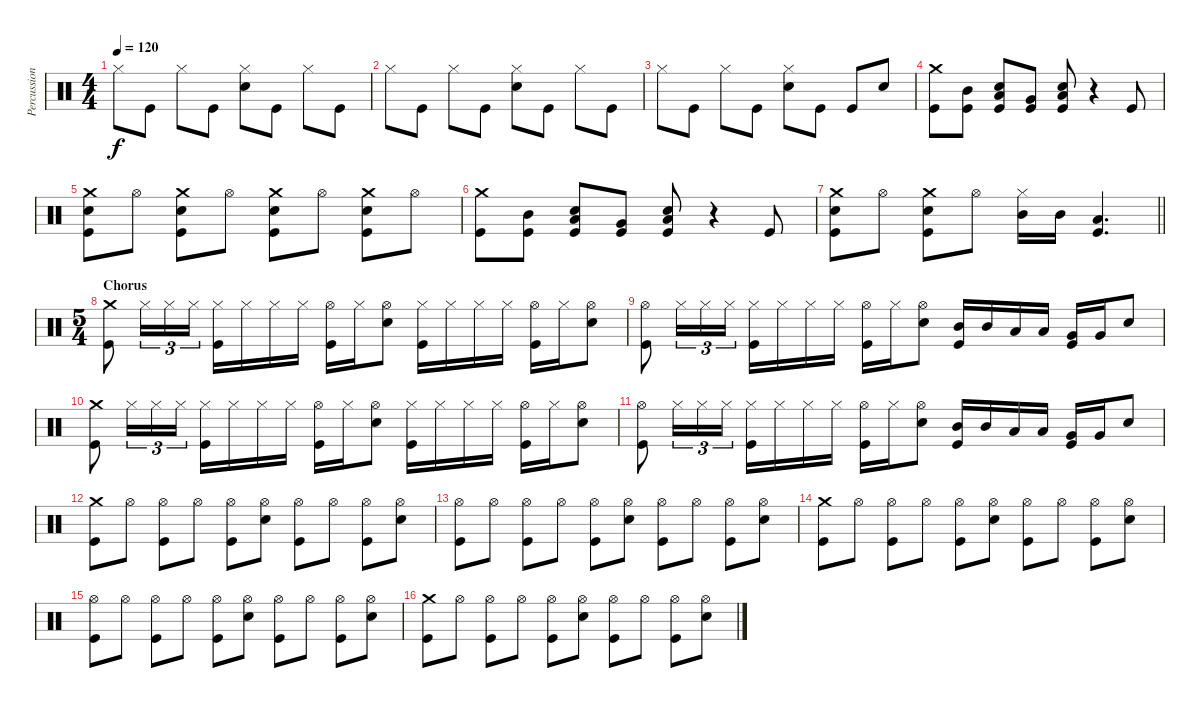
\track ("Percussion" "Percussion") {instrument percussion}
\staff {score}
\articulation defaults
\ts (4 4)
\tempo 120
\clef neutral
\ks c "Hi-Hat (closed)".8{dy f} "Kick (hit)".8 "Hi-Hat (closed)".8 "Kick (hit)".8
("Hi-Hat (closed)" "Snare (hit) 2").8 "Kick (hit)".8 "Hi-Hat (closed)".8 "Kick (hit)".8 |
"Hi-Hat (closed)".8 "Kick (hit)".8 "Hi-Hat (closed)".8 "Kick (hit)".8 ("Hi-Hat (closed)" "Snare (hit) 2").8 "Kick (hit)".8 "Hi-Hat (closed)".8 "Kick (hit)".8 |
"Hi-Hat (closed)".8 "Kick (hit)".8 "Hi-Hat (closed)".8 "Kick (hit)".8 ("Hi-Hat (closed)" "Snare (hit) 2").8 "Kick (hit)".8 "Kick (hit)".8 "Snare (hit) 2".8 |
("Crash medium (hit)" "Kick (hit)").8 ("Mid Tom (hit)" "Kick (hit)").8 ("Low Tom (hit)" "Snare (hit) 2" "Kick (hit)").8 ("Very Low Tom (hit)" "Kick (hit)").8 ("Low Floor Tom (hit)" "Snare (hit) 2" "Kick (hit)").8 r.4 "Kick (hit)".8 |
("Crash medium (hit)" "Snare (hit) 2" "Kick (hit)").8 "Hi-Hat (open)".8 ("Crash medium (hit)" "Snare (hit) 2" "Kick (hit)").8 "Hi-Hat (open)".8 ("Crash medium (hit)" "Snare (hit) 2" "Kick (hit)").8 "Hi-Hat (open)".8 ("Crash medium (hit)" "Snare (hit) 2" "Kick (hit)").8 "Hi-Hat (open)".8 |
("Crash medium (hit)" "Kick (hit)").8 ("Mid Tom (hit)" "Kick (hit)").8 ("Low Tom (hit)" "Snare (hit) 2" "Kick (hit)").8 ("Very Low Tom (hit)" "Kick (hit)").8 ("Low Floor Tom (hit)" "Snare (hit) 2" "Kick (hit)").8 r.4 "Kick (hit)".8 |
\barLineRight lightlight
("Crash medium (hit)" "Snare (hit) 2" "Kick (hit)").8 "Hi-Hat (open)".8 ("Crash medium (hit)" "Snare (hit) 2" "Kick (hit)").8 "Hi-Hat (open)".8 ("Mid Tom (hit)" "Hi-Hat (closed)").16 "Mid Tom (hit)".16 ("Low Floor Tom (hit)" "Kick (hit)").4{d} |
\ts (5 4)
\section ("" "Chorus")
("Crash medium (hit)" "Kick (hit)").8 "Hi-Hat (closed)".16{tu (3 2)} "Hi-Hat (closed)".16{tu (3 2)} "Hi-Hat (closed)".16{tu (3 2)} ("Hi-Hat (closed)" "Kick (hit)").16 "Hi-Hat (closed)".16 "Hi-Hat (closed)".16 "Hi-Hat (closed)".16 ("Hi-Hat (open)" "Kick (hit)").16 "Hi-Hat (closed)".16 ("Hi-Hat (open)" "Snare (hit) 2").8 ("Hi-Hat (closed)" "Kick (hit)").16 "Hi-Hat (closed)".16 "Hi-Hat (closed)".16 "Hi-Hat (closed)".16 ("Hi-Hat (open)" "Kick (hit)").16 "Hi-Hat (closed)".16 ("Hi-Hat (open)" "Snare (hit) 2").8 |
("Hi-Hat (open)" "Kick (hit)").8 "Hi-Hat (closed)".16{tu (3 2)} "Hi-Hat (closed)".16{tu (3 2)} "Hi-Hat (closed)".16{tu (3 2)} ("Hi-Hat (closed)" "Kick (hit)").16 "Hi-Hat (closed)".16 "Hi-Hat (closed)".16 "Hi-Hat (closed)".16 ("Hi-Hat (open)" "Kick (hit)").16 "Hi-Hat (closed)".16 ("Hi-Hat (open)" "Snare (hit) 2").8 ("Mid Tom (hit)" "Kick (hit)").16 "Mid Tom (hit)".16 "Low Tom (hit)".16 "Low Tom (hit)".16 ("Very Low Tom (hit)" "Kick (hit)").16 "Very Low Tom (hit)".16 "Snare (hit) 2".8 |
("Crash medium (hit)" "Kick (hit)").8 "Hi-Hat (closed)".16{tu (3 2)} "Hi-Hat (closed)".16{tu (3 2)} "Hi-Hat (closed)".16{tu (3 2)} ("Hi-Hat (closed)" "Kick (hit)").16 "Hi-Hat (closed)".16 "Hi-Hat (closed)".16 "Hi-Hat (closed)".16 ("Hi-Hat (open)" "Kick (hit)").16 "Hi-Hat (closed)".16 ("Hi-Hat (open)" "Snare (hit) 2").8 ("Hi-Hat (closed)" "Kick (hit)").16 "Hi-Hat (closed)".16 "Hi-Hat (closed)".16 "Hi-Hat (closed)".16 ("Hi-Hat (open)" "Kick (hit)").16 "Hi-Hat (closed)".16 ("Hi-Hat (open)" "Snare (hit) 2").8 |
("Hi-Hat (open)" "Kick (hit)").8 "Hi-Hat (closed)".16{tu (3 2)} "Hi-Hat (closed)".16{tu (3 2)} "Hi-Hat (closed)".16{tu (3 2)} ("Hi-Hat (closed)" "Kick (hit)").16 "Hi-Hat (closed)".16 "Hi-Hat (closed)".16 "Hi-Hat (closed)".16 ("Hi-Hat (open)" "Kick (hit)").16 "Hi-Hat (closed)".16 ("Hi-Hat (open)" "Snare (hit) 2").8 ("Mid Tom (hit)" "Kick (hit)").16 "Mid Tom (hit)".16 "Low Tom (hit)".16 "Low Tom (hit)".16 ("Very Low Tom (hit)" "Kick (hit)").16 "Very Low Tom (hit)".16 "Snare (hit) 2".8 |
("Crash medium (hit)" "Kick (hit)").8 "Hi-Hat (open)".8 ("Hi-Hat (open)" "Kick (hit)").8 "Hi-Hat (open)".8 ("Hi-Hat (open)" "Kick (hit)").8 ("Hi-Hat (open)" "Snare (hit) 2").8 ("Hi-Hat (open)" "Kick (hit)").8 "Hi-Hat (open)".8 ("Hi-Hat (open)" "Kick (hit)").8 ("Hi-Hat (open)" "Snare (hit) 2").8 |
("Hi-Hat (open)" "Kick (hit)").8 "Hi-Hat (open)".8 ("Hi-Hat (open)" "Kick (hit)").8 "Hi-Hat (open)".8 ("Hi-Hat (open)" "Kick (hit)").8 ("Hi-Hat (open)" "Snare (hit) 2").8 ("Hi-Hat (open)" "Kick (hit)").8 "Hi-Hat (open)".8 ("Hi-Hat (open)" "Kick (hit)").8 ("Hi-Hat (open)" "Snare (hit) 2").8 |
("Crash medium (hit)" "Kick (hit)").8 "Hi-Hat (open)".8 ("Hi-Hat (open)" "Kick (hit)").8 "Hi-Hat (open)".8 ("Hi-Hat (open)" "Kick (hit)").8 ("Hi-Hat (open)" "Snare (hit) 2").8 ("Hi-Hat (open)" "Kick (hit)").8 "Hi-Hat (open)".8 ("Hi-Hat (open)" "Kick (hit)").8 ("Hi-Hat (open)" "Snare (hit) 2").8 |
("Hi-Hat (open)" "Kick (hit)").8 "Hi-Hat (open)".8 ("Hi-Hat (open)" "Kick (hit)").8 "Hi-Hat (open)".8 ("Hi-Hat (open)" "Kick (hit)").8 ("Hi-Hat (open)" "Snare (hit) 2").8 ("Hi-Hat (open)" "Kick (hit)").8 "Hi-Hat (open)".8 ("Hi-Hat (open)" "Kick (hit)").8 ("Hi-Hat (open)" "Snare (hit) 2").8 |
("Crash medium (hit)" "Kick (hit)").8 "Hi-Hat (open)".8 ("Hi-Hat (open)" "Kick (hit)").8 "Hi-Hat (open)".8 ("Hi-Hat (open)" "Kick (hit)").8 ("Hi-Hat (open)" "Snare (hit) 2").8 ("Hi-Hat (open)" "Kick (hit)").8 "Hi-Hat (open)".8 ("Hi-Hat (open)" "Kick (hit)").8 ("Hi-Hat (open)" "Snare (hit) 2").8
